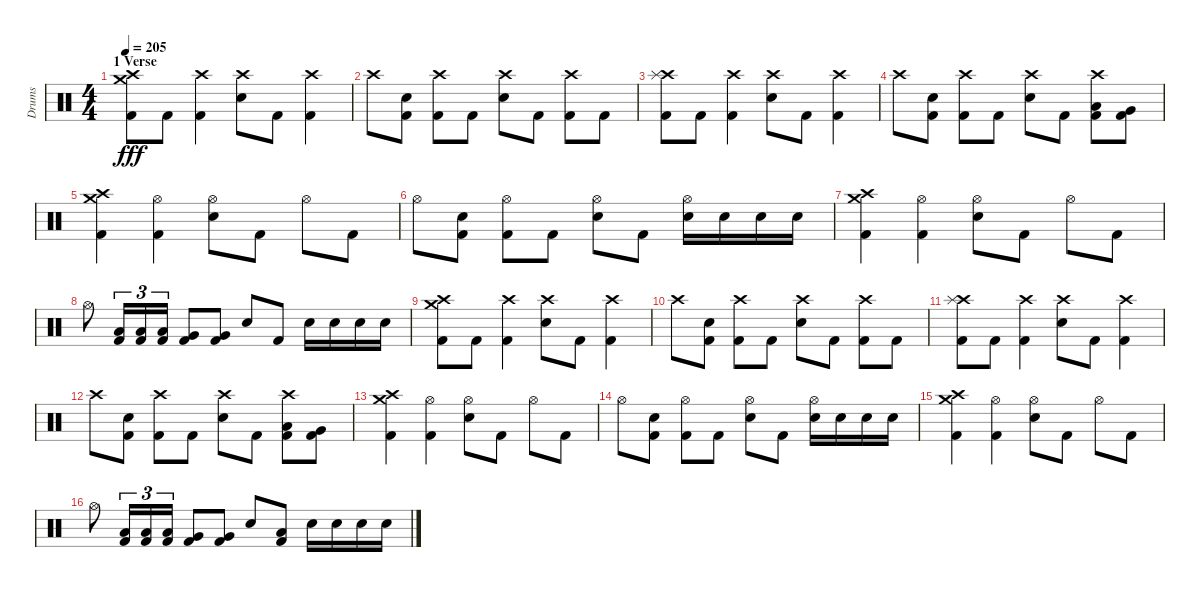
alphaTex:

\track ("Drums" "Drums") {instrument percussion}
\staff {score}
\articulation defaults
\ts (4 4)
\section ("" "1 Verse ")
\tempo 205
\clef neutral
\ks c
("Crash medium (hit)" "Crash high (hit)" "Kick (hit) 2").8{dy fff} "Kick (hit) 2".8 ("Crash high (hit)" "Kick (hit) 2").4 ("Crash high (hit)" "Electric Snare (hit)").8 "Kick (hit) 2".8 ("Crash high (hit)" "Kick (hit) 2").4 |
"Crash high (hit)".8 ("Electric Snare (hit)" "Kick (hit) 2").8 ("Crash high (hit)" "Kick (hit) 2").8 "Kick (hit) 2".8 ("Crash high (hit)" "Electric Snare (hit)").8 "Kick (hit) 2".8 ("Crash high (hit)" "Kick (hit) 2").8 "Kick (hit) 2".8 |
("Crash high (hit)" "Splash (hit)" "Kick (hit) 2").8 "Kick (hit) 2".8 ("Crash high (hit)" "Kick (hit) 2").4 ("Crash high (hit)" "Electric Snare (hit)").8 "Kick (hit) 2".8 ("Crash high (hit)" "Kick (hit) 2").4 |
"Crash high (hit)".8 ("Electric Snare (hit)" "Kick (hit) 2").8 ("Crash high (hit)" "Kick (hit) 2").8 "Kick (hit) 2".8 ("Crash high (hit)" "Electric Snare (hit)").8 "Kick (hit) 2".8 ("Crash high (hit)" "Low Tom (hit)" "Kick (hit) 2").8 ("Very Low Tom (hit)" "Kick (hit) 2").8 |
("Crash medium (hit)" "Crash high (hit)" "Kick (hit) 2").4 ("Hi-Hat (open)" "Kick (hit) 2").4 ("Hi-Hat (open)" "Electric Snare (hit)").8 "Kick (hit) 2".8 "Hi-Hat (open)".8 "Kick (hit) 2".8 |
"Hi-Hat (open)".8 ("Electric Snare (hit)" "Kick (hit) 2").8 ("Hi-Hat (open)" "Kick (hit) 2").8 "Kick (hit) 2".8 ("Hi-Hat (open)" "Electric Snare (hit)").8 "Kick (hit) 2".8 ("Hi-Hat (open)" "Electric Snare (hit)").16 "Electric Snare (hit)".16 "Electric Snare (hit)".16 "Electric Snare (hit)".16 |
("Crash medium (hit)" "Crash high (hit)" "Kick (hit) 2").4 ("Hi-Hat (open)" "Kick (hit) 2").4 ("Hi-Hat (open)" "Electric Snare (hit)").8 "Kick (hit) 2".8 "Hi-Hat (open)".8 "Kick (hit) 2".8 |
"Hi-Hat (open)".8 ("Low Tom (hit)" "Kick (hit) 2").16{tu (3 2)} ("Low Tom (hit)" "Kick (hit) 2").16{tu (3 2)} ("Low Tom (hit)" "Kick (hit) 2").16{tu (3 2)} ("Very Low Tom (hit)" "Kick (hit) 2").8 ("Very Low Tom (hit)" "Kick (hit) 2").8 "Electric Snare (hit)".8 "Kick (hit) 2".8 "Electric Snare (hit)".16 "Electric Snare (hit)".16 "Electric Snare (hit)".16 "Electric Snare (hit)".16 |
("Crash medium (hit)" "Crash high (hit)" "Kick (hit) 2").8 "Kick (hit) 2".8 ("Crash high (hit)" "Kick (hit) 2").4 ("Crash high (hit)" "Electric Snare (hit)").8 "Kick (hit) 2".8 ("Crash high (hit)" "Kick (hit) 2").4 |
"Crash high (hit)".8 ("Electric Snare (hit)" "Kick (hit) 2").8 ("Crash high (hit)" "Kick (hit) 2").8 "Kick (hit) 2".8 ("Crash high (hit)" "Electric Snare (hit)").8 "Kick (hit) 2".8 ("Crash high (hit)" "Kick (hit) 2").8 "Kick (hit) 2".8 |
("Crash high (hit)" "Splash (hit)" "Kick (hit) 2").8 "Kick (hit) 2".8 ("Crash high (hit)" "Kick (hit) 2").4 ("Crash high (hit)" "Electric Snare (hit)").8 "Kick (hit) 2".8 ("Crash high (hit)" "Kick (hit) 2").4 |
"Crash high (hit)".8 ("Electric Snare (hit)" "Kick (hit) 2").8 ("Crash high (hit)" "Kick (hit) 2").8 "Kick (hit) 2".8 ("Crash high (hit)" "Electric Snare (hit)").8 "Kick (hit) 2".8 ("Crash high (hit)" "Low Tom (hit)" "Kick (hit) 2").8 ("Very Low Tom (hit)" "Kick (hit) 2").8 |
("Crash medium (hit)" "Crash high (hit)" "Kick (hit) 2").4 ("Hi-Hat (open)" "Kick (hit) 2").4 ("Hi-Hat (open)" "Electric Snare (hit)").8 "Kick (hit) 2".8 "Hi-Hat (open)".8 "Kick (hit) 2".8 |
"Hi-Hat (open)".8 ("Electric Snare (hit)" "Kick (hit) 2").8 ("Hi-Hat (open)" "Kick (hit) 2").8 "Kick (hit) 2".8 ("Hi-Hat (open)" "Electric Snare (hit)").8 "Kick (hit) 2".8 ("Hi-Hat (open)" "Electric Snare (hit)").16 "Electric Snare (hit)".16 "Electric Snare (hit)".16 "Electric Snare (hit)".16 |
("Crash medium (hit)" "Crash high (hit)" "Kick (hit) 2").4 ("Hi-Hat (open)" "Kick (hit) 2").4 ("Hi-Hat (open)" "Electric Snare (hit)").8 "Kick (hit) 2".8 "Hi-Hat (open)".8 "Kick (hit) 2".8 |
"Hi-Hat (open)".8 ("Low Tom (hit)" "Kick (hit) 2").16{tu (3 2)} ("Low Tom (hit)" "Kick (hit) 2").16{tu (3 2)} ("Low Tom (hit)" "Kick (hit) 2").16{tu (3 2)} ("Very Low Tom (hit)" "Kick (hit) 2").8 ("Very Low Tom (hit)" "Kick (hit) 2").8 "Electric Snare (hit)".8 ("Low Tom (hit)" "Kick (hit) 2").8 "Electric Snare (hit)".16 "Electric Snare (hit)".16 "Electric Snare (hit)".16 "Electric Snare (hit)".16
